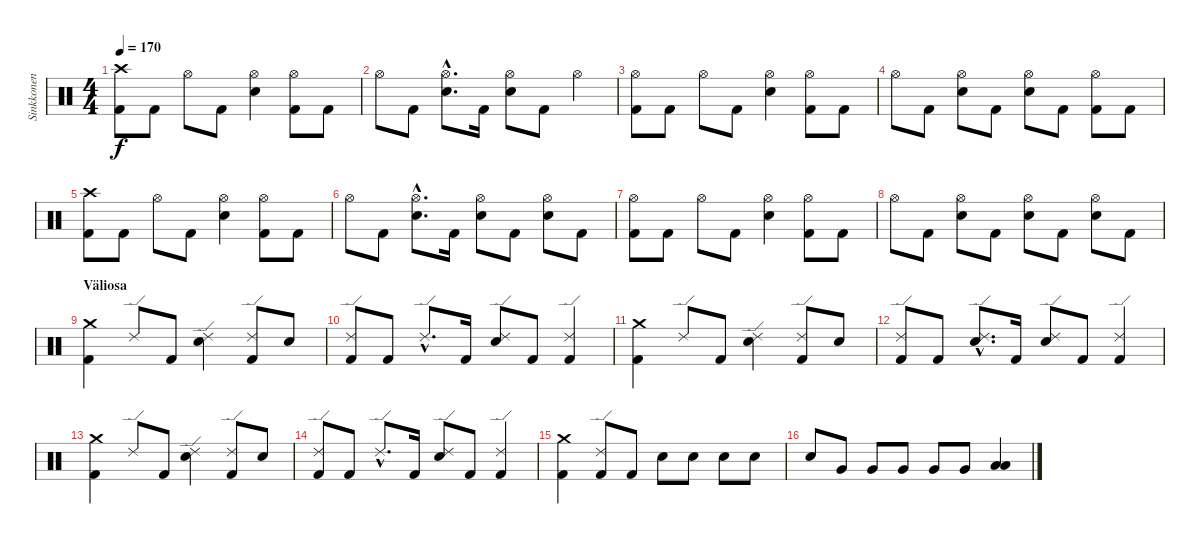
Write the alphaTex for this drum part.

\track ("Sinkkonen" "Sinkkonen") {instrument percussion}
\staff {score}
\articulation defaults
\ts (4 4)
\tempo 170
\clef neutral
\ks c
("Crash high (hit)" "Kick (hit) 2").8{dy f} "Kick (hit) 2".8 "Hi-Hat (open)".8 "Kick (hit) 2".8 ("Hi-Hat (open)" "Electric Snare (hit)").4 ("Hi-Hat (open)" "Kick (hit) 2").8 "Kick (hit) 2".8 |
"Hi-Hat (open)".8 "Kick (hit) 2".8 ("Hi-Hat (open)"{hac} "Electric Snare (hit)"{hac}).8{d} "Kick (hit) 2".16 ("Hi-Hat (open)" "Electric Snare (hit)").8 "Kick (hit) 2".8 "Hi-Hat (open)".4 |
("Hi-Hat (open)" "Kick (hit) 2").8 "Kick (hit) 2".8 "Hi-Hat (open)".8 "Kick (hit) 2".8 ("Hi-Hat (open)" "Electric Snare (hit)").4 ("Hi-Hat (open)" "Kick (hit) 2").8 "Kick (hit) 2".8 |
"Hi-Hat (open)".8 "Kick (hit) 2".8 ("Hi-Hat (open)" "Electric Snare (hit)").8 "Kick (hit) 2".8 ("Hi-Hat (open)" "Electric Snare (hit)").8 "Kick (hit) 2".8 ("Hi-Hat (open)" "Kick (hit) 2").8 "Kick (hit) 2".8 |
("Crash high (hit)" "Kick (hit) 2").8 "Kick (hit) 2".8 "Hi-Hat (open)".8 "Kick (hit) 2".8 ("Hi-Hat (open)" "Electric Snare (hit)").4 ("Hi-Hat (open)" "Kick (hit) 2").8 "Kick (hit) 2".8 |
"Hi-Hat (open)".8 "Kick (hit) 2".8 ("Hi-Hat (open)"{hac} "Electric Snare (hit)"{hac}).8{d} "Kick (hit) 2".16 ("Hi-Hat (open)" "Electric Snare (hit)").8 "Kick (hit) 2".8 ("Hi-Hat (open)" "Electric Snare (hit)").8 "Kick (hit) 2".8 |
("Hi-Hat (open)" "Kick (hit) 2").8 "Kick (hit) 2".8 "Hi-Hat (open)".8 "Kick (hit) 2".8 ("Hi-Hat (open)" "Electric Snare (hit)").4 ("Hi-Hat (open)" "Kick (hit) 2").8 "Kick (hit) 2".8 |
"Hi-Hat (open)".8 "Kick (hit) 2".8 ("Hi-Hat (open)" "Electric Snare (hit)").8 "Kick (hit) 2".8 ("Hi-Hat (open)" "Electric Snare (hit)").8 "Kick (hit) 2".8 ("Hi-Hat (open)" "Electric Snare (hit)").8 "Kick (hit) 2".8 |
\section ("" "Väliosa")
("Crash medium (hit)" "Kick (hit) 2").4 "Ride (edge) 2".8 "Kick (hit) 2".8 ("Ride (edge) 2" "Electric Snare (hit)").4 ("Ride (edge) 2" "Kick (hit) 2").8 "Electric Snare (hit)".8 |
("Ride (edge) 2" "Kick (hit) 2").8 "Kick (hit) 2".8 "Ride (edge) 2"{hac}.8{d} "Kick (hit) 2".16 ("Ride (edge) 2" "Electric Snare (hit)").8 "Kick (hit) 2".8 ("Ride (edge) 2" "Kick (hit) 2").4 |
("Crash medium (hit)" "Kick (hit) 2").4 "Ride (edge) 2".8 "Kick (hit) 2".8 ("Ride (edge) 2" "Electric Snare (hit)").4 ("Ride (edge) 2" "Kick (hit) 2").8 "Electric Snare (hit)".8 |
("Ride (edge) 2" "Kick (hit) 2").8 "Kick (hit) 2".8 ("Ride (edge) 2"{hac} "Electric Snare (hit)"{hac}).8{d} "Kick (hit) 2".16 ("Ride (edge) 2" "Electric Snare (hit)").8 "Kick (hit) 2".8 ("Ride (edge) 2" "Kick (hit) 2").4 |
("Crash medium (hit)" "Kick (hit) 2").4 "Ride (edge) 2".8 "Kick (hit) 2".8 ("Ride (edge) 2" "Electric Snare (hit)").4 ("Ride (edge) 2" "Kick (hit) 2").8 "Electric Snare (hit)".8 |
("Ride (edge) 2" "Kick (hit) 2").8 "Kick (hit) 2".8 "Ride (edge) 2"{hac}.8{d} "Kick (hit) 2".16 ("Ride (edge) 2" "Electric Snare (hit)").8 "Kick (hit) 2".8 ("Ride (edge) 2" "Kick (hit) 2").4 |
("Crash medium (hit)" "Kick (hit) 2").4 ("Ride (edge) 2" "Kick (hit) 2").8 "Kick (hit) 2".8 "Electric Snare (hit)".8 "Electric Snare (hit)".8 "Electric Snare (hit)".8 "Electric Snare (hit)".8 |
"Electric Snare (hit)".8 "Very Low Tom (hit)".8 "Very Low Tom (hit)".8 "Very Low Tom (hit)".8 "Very Low Tom (hit)".8 "Very Low Tom (hit)".8 ("Low Floor Tom (hit)" "Low Floor Tom (hit)").4
